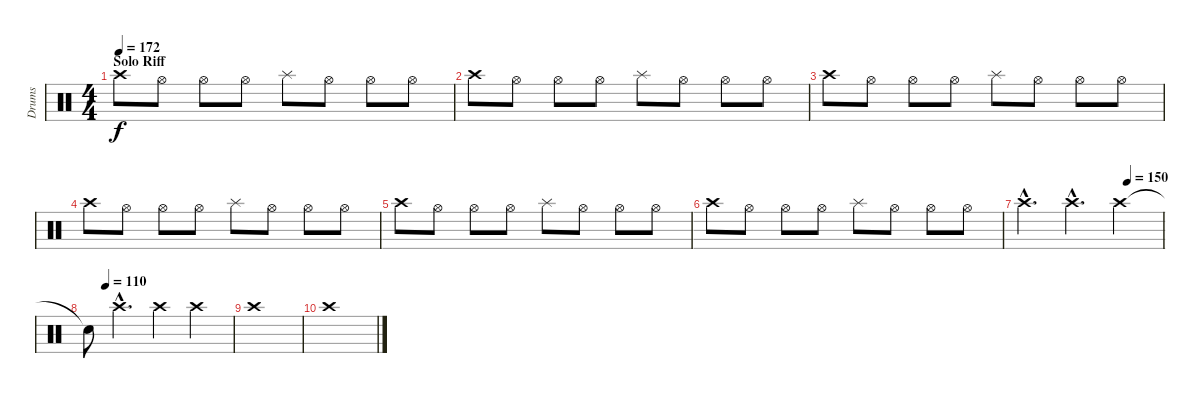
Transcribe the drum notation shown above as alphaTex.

\track ("Drums" "Drums") {instrument percussion}
\staff {score}
\articulation defaults
\ts (4 4)
\section ("" "Solo Riff")
\tempo 172
\clef neutral
\ks c "Crash high (hit)".8{dy f} "Hi-Hat (open)".8 "Hi-Hat (open)".8 "Hi-Hat (open)".8 "Splash (hit)".8 "Hi-Hat (open)".8 "Hi-Hat (open)".8 "Hi-Hat (open)".8
|
"Crash high (hit)".8 "Hi-Hat (open)".8 "Hi-Hat (open)".8 "Hi-Hat (open)".8 "Splash (hit)".8 "Hi-Hat (open)".8 "Hi-Hat (open)".8 "Hi-Hat (open)".8 |
"Crash high (hit)".8 "Hi-Hat (open)".8 "Hi-Hat (open)".8 "Hi-Hat (open)".8 "Splash (hit)".8 "Hi-Hat (open)".8 "Hi-Hat (open)".8 "Hi-Hat (open)".8 |
"Crash high (hit)".8 "Hi-Hat (open)".8 "Hi-Hat (open)".8 "Hi-Hat (open)".8 "Splash (hit)".8 "Hi-Hat (open)".8 "Hi-Hat (open)".8 "Hi-Hat (open)".8 |
"Crash high (hit)".8 "Hi-Hat (open)".8 "Hi-Hat (open)".8 "Hi-Hat (open)".8 "Splash (hit)".8 "Hi-Hat (open)".8 "Hi-Hat (open)".8 "Hi-Hat (open)".8 |
"Crash high (hit)".8 "Hi-Hat (open)".8 "Hi-Hat (open)".8 "Hi-Hat (open)".8 "Splash (hit)".8 "Hi-Hat (open)".8 "Hi-Hat (open)".8 "Hi-Hat (open)".8 |
\tempo (150 0.75)
"Crash high (hit)"{hac}.4{d} "Crash high (hit)"{hac}.4{d} "Crash high (hit)".4 |
\tempo (110 0.125)
"Snare (hit)"{t}.8 "Crash high (hit)"{hac}.4{d} "Crash high (hit)".4 "Crash high (hit)".4 |
"Crash high (hit)".1 |
"Crash high (hit)".1
